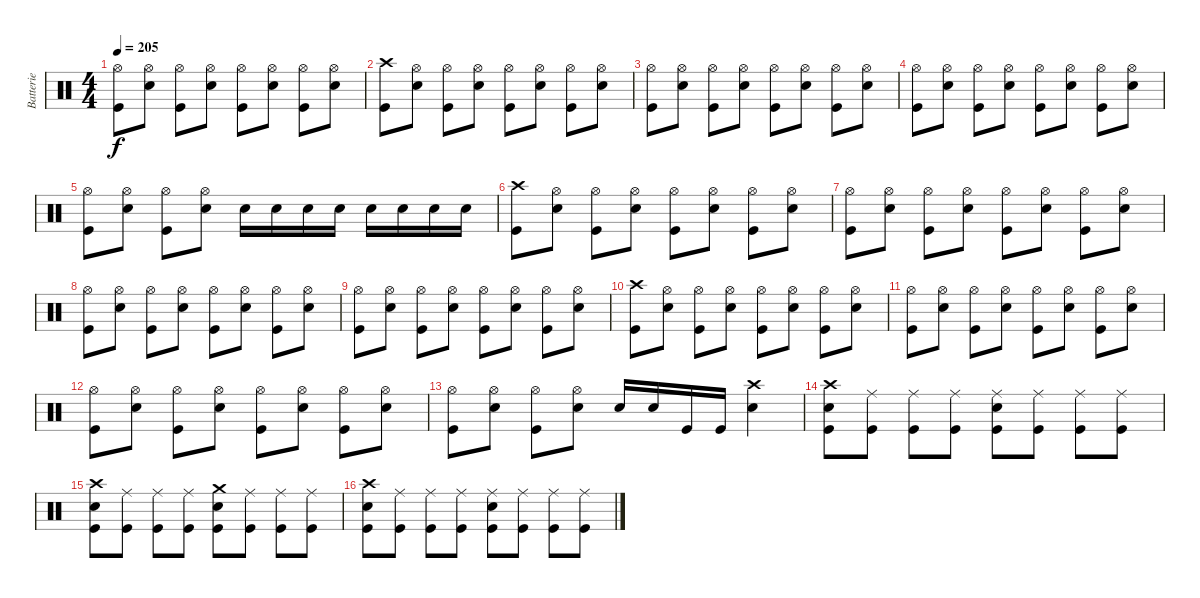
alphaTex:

\track ("Batterie" "Batterie") {instrument percussion}
\staff {score}
\articulation defaults
\ts (4 4)
\tempo 205
\clef neutral
\ks c
("Hi-Hat (open)" "Kick (hit)").8{dy f} ("Hi-Hat (open)" "Electric Snare (hit)").8 ("Hi-Hat (open)" "Kick (hit)").8 ("Hi-Hat (open)" "Electric Snare (hit)").8 ("Hi-Hat (open)" "Kick (hit)").8 ("Hi-Hat (open)" "Electric Snare (hit)").8 ("Hi-Hat (open)" "Kick (hit)").8 ("Hi-Hat (open)" "Electric Snare (hit)").8 |
("Crash high (hit)" "Kick (hit)").8 ("Hi-Hat (open)" "Electric Snare (hit)").8 ("Hi-Hat (open)" "Kick (hit)").8 ("Hi-Hat (open)" "Electric Snare (hit)").8 ("Hi-Hat (open)" "Kick (hit)").8 ("Hi-Hat (open)" "Electric Snare (hit)").8 ("Hi-Hat (open)" "Kick (hit)").8 ("Hi-Hat (open)" "Electric Snare (hit)").8 |
("Hi-Hat (open)" "Kick (hit)").8 ("Hi-Hat (open)" "Electric Snare (hit)").8 ("Hi-Hat (open)" "Kick (hit)").8 ("Hi-Hat (open)" "Electric Snare (hit)").8 ("Hi-Hat (open)" "Kick (hit)").8 ("Hi-Hat (open)" "Electric Snare (hit)").8 ("Hi-Hat (open)" "Kick (hit)").8 ("Hi-Hat (open)" "Electric Snare (hit)").8 |
("Hi-Hat (open)" "Kick (hit)").8 ("Hi-Hat (open)" "Electric Snare (hit)").8 ("Hi-Hat (open)" "Kick (hit)").8 ("Hi-Hat (open)" "Electric Snare (hit)").8 ("Hi-Hat (open)" "Kick (hit)").8 ("Hi-Hat (open)" "Electric Snare (hit)").8 ("Hi-Hat (open)" "Kick (hit)").8 ("Hi-Hat (open)" "Electric Snare (hit)").8 |
("Hi-Hat (open)" "Kick (hit)").8 ("Hi-Hat (open)" "Electric Snare (hit)").8 ("Hi-Hat (open)" "Kick (hit)").8 ("Hi-Hat (open)" "Electric Snare (hit)").8 "Electric Snare (hit)".16 "Electric Snare (hit)".16 "Electric Snare (hit)".16 "Electric Snare (hit)".16 "Electric Snare (hit)".16 "Electric Snare (hit)".16 "Electric Snare (hit)".16 "Electric Snare (hit)".16 |
("Crash high (hit)" "Kick (hit)").8 ("Hi-Hat (open)" "Electric Snare (hit)").8 ("Hi-Hat (open)" "Kick (hit)").8 ("Hi-Hat (open)" "Electric Snare (hit)").8 ("Hi-Hat (open)" "Kick (hit)").8 ("Hi-Hat (open)" "Electric Snare (hit)").8 ("Hi-Hat (open)" "Kick (hit)").8 ("Hi-Hat (open)" "Electric Snare (hit)").8 |
("Hi-Hat (open)" "Kick (hit)").8 ("Hi-Hat (open)" "Electric Snare (hit)").8 ("Hi-Hat (open)" "Kick (hit)").8 ("Hi-Hat (open)" "Electric Snare (hit)").8 ("Hi-Hat (open)" "Kick (hit)").8 ("Hi-Hat (open)" "Electric Snare (hit)").8 ("Hi-Hat (open)" "Kick (hit)").8 ("Hi-Hat (open)" "Electric Snare (hit)").8 |
("Hi-Hat (open)" "Kick (hit)").8 ("Hi-Hat (open)" "Electric Snare (hit)").8 ("Hi-Hat (open)" "Kick (hit)").8 ("Hi-Hat (open)" "Electric Snare (hit)").8 ("Hi-Hat (open)" "Kick (hit)").8 ("Hi-Hat (open)" "Electric Snare (hit)").8 ("Hi-Hat (open)" "Kick (hit)").8 ("Hi-Hat (open)" "Electric Snare (hit)").8 |
("Hi-Hat (open)" "Kick (hit)").8 ("Hi-Hat (open)" "Electric Snare (hit)").8 ("Hi-Hat (open)" "Kick (hit)").8 ("Hi-Hat (open)" "Electric Snare (hit)").8 ("Hi-Hat (open)" "Kick (hit)").8 ("Hi-Hat (open)" "Electric Snare (hit)").8 ("Hi-Hat (open)" "Kick (hit)").8 ("Hi-Hat (open)" "Electric Snare (hit)").8 |
("Crash high (hit)" "Kick (hit)").8 ("Hi-Hat (open)" "Electric Snare (hit)").8 ("Hi-Hat (open)" "Kick (hit)").8 ("Hi-Hat (open)" "Electric Snare (hit)").8 ("Hi-Hat (open)" "Kick (hit)").8 ("Hi-Hat (open)" "Electric Snare (hit)").8 ("Hi-Hat (open)" "Kick (hit)").8 ("Hi-Hat (open)" "Electric Snare (hit)").8 |
("Hi-Hat (open)" "Kick (hit)").8 ("Hi-Hat (open)" "Electric Snare (hit)").8 ("Hi-Hat (open)" "Kick (hit)").8 ("Hi-Hat (open)" "Electric Snare (hit)").8 ("Hi-Hat (open)" "Kick (hit)").8 ("Hi-Hat (open)" "Electric Snare (hit)").8 ("Hi-Hat (open)" "Kick (hit)").8 ("Hi-Hat (open)" "Electric Snare (hit)").8 |
("Hi-Hat (open)" "Kick (hit)").8 ("Hi-Hat (open)" "Electric Snare (hit)").8 ("Hi-Hat (open)" "Kick (hit)").8 ("Hi-Hat (open)" "Electric Snare (hit)").8 ("Hi-Hat (open)" "Kick (hit)").8 ("Hi-Hat (open)" "Electric Snare (hit)").8 ("Hi-Hat (open)" "Kick (hit)").8 ("Hi-Hat (open)" "Electric Snare (hit)").8 |
("Hi-Hat (open)" "Kick (hit)").8 ("Hi-Hat (open)" "Electric Snare (hit)").8 ("Hi-Hat (open)" "Kick (hit)").8 ("Hi-Hat (open)" "Electric Snare (hit)").8 "Electric Snare (hit)".16 "Electric Snare (hit)".16 "Kick (hit)".16 "Kick (hit)".16 ("Crash high (hit)" "Electric Snare (hit)").4 |
("Crash high (hit)" "Electric Snare (hit)" "Kick (hit)").8 ("Ride (middle)" "Kick (hit)").8 ("Ride (middle)" "Kick (hit)").8 ("Ride (middle)" "Kick (hit)").8 ("Ride (middle)" "Electric Snare (hit)" "Kick (hit)").8 ("Ride (middle)" "Kick (hit)").8 ("Ride (middle)" "Kick (hit)").8 ("Ride (middle)" "Kick (hit)").8 |
("Crash high (hit)" "Electric Snare (hit)" "Kick (hit)").8 ("Ride (middle)" "Kick (hit)").8 ("Ride (middle)" "Kick (hit)").8 ("Ride (middle)" "Kick (hit)").8 ("Crash medium (hit)" "Electric Snare (hit)" "Kick (hit)").8 ("Ride (middle)" "Kick (hit)").8 ("Ride (middle)" "Kick (hit)").8 ("Ride (middle)" "Kick (hit)").8 |
("Crash high (hit)" "Electric Snare (hit)" "Kick (hit)").8 ("Ride (middle)" "Kick (hit)").8 ("Ride (middle)" "Kick (hit)").8 ("Ride (middle)" "Kick (hit)").8 ("Ride (middle)" "Electric Snare (hit)" "Kick (hit)").8 ("Ride (middle)" "Kick (hit)").8 ("Ride (middle)" "Kick (hit)").8 ("Ride (middle)" "Kick (hit)").8
